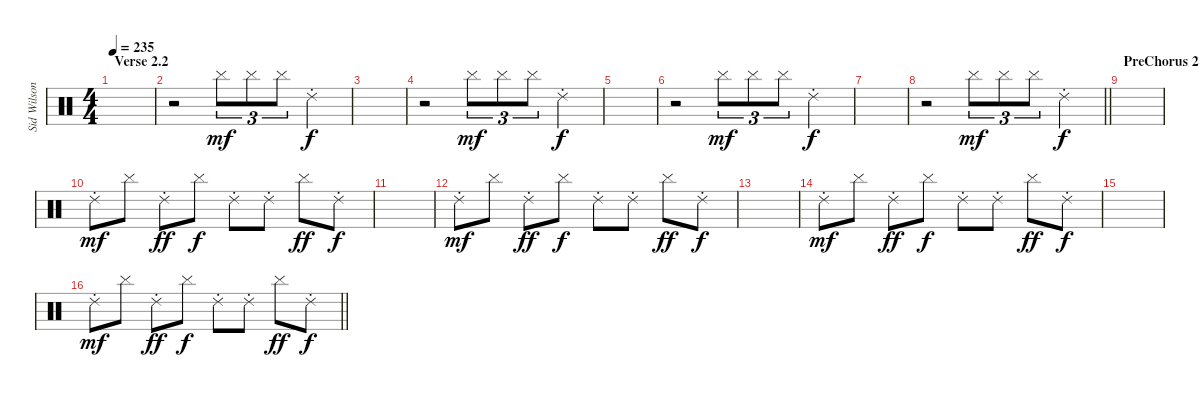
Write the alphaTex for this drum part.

\track ("Sid Wilson" "Sid Wilson") {instrument percussion}
\staff {score}
\articulation defaults
\ts (4 4)
\section ("" "Verse 2.2")
\tempo 235
\clef neutral
\ks c
|
r.2 "Cymbal (hit)".8{tu (3 2) dy mf} "Cymbal (hit)".8{tu (3 2)} "Cymbal (hit)".8{tu (3 2)} "Ride (choke) 2".4{dy f} |
|
r.2 "Cymbal (hit)".8{tu (3 2) dy mf} "Cymbal (hit)".8{tu (3 2)} "Cymbal (hit)".8{tu (3 2)} "Ride (choke) 2".4{dy f} |
|
r.2 "Cymbal (hit)".8{tu (3 2) dy mf} "Cymbal (hit)".8{tu (3 2)} "Cymbal (hit)".8{tu (3 2)} "Ride (choke) 2".4{dy f} |
|
\barLineRight lightlight
r.2 "Cymbal (hit)".8{tu (3 2) dy mf} "Cymbal (hit)".8{tu (3 2)} "Cymbal (hit)".8{tu (3 2)} "Ride (choke) 2".4{dy f} |
\section ("" "PreChorus 2")
|
"Ride (choke) 2".8{dy mf} "Cymbal (hit)".8 "Ride (choke) 2".8{dy ff} "Cymbal (hit)".8{dy f} "Ride (choke) 2".8 "Ride (choke) 2".8 "Cymbal (hit)".8{dy ff} "Ride (choke) 2".8{dy f} |
|
"Ride (choke) 2".8{dy mf} "Cymbal (hit)".8 "Ride (choke) 2".8{dy ff} "Cymbal (hit)".8{dy f} "Ride (choke) 2".8 "Ride (choke) 2".8 "Cymbal (hit)".8{dy ff} "Ride (choke) 2".8{dy f} |
|
"Ride (choke) 2".8{dy mf} "Cymbal (hit)".8 "Ride (choke) 2".8{dy ff} "Cymbal (hit)".8{dy f} "Ride (choke) 2".8 "Ride (choke) 2".8 "Cymbal (hit)".8{dy ff} "Ride (choke) 2".8{dy f} |
|
\barLineRight lightlight "Ride (choke) 2".8{dy mf} "Cymbal (hit)".8 "Ride (choke) 2".8{dy ff} "Cymbal (hit)".8{dy f} "Ride (choke) 2".8 "Ride (choke) 2".8 "Cymbal (hit)".8{dy ff} "Ride (choke) 2".8{dy f}
